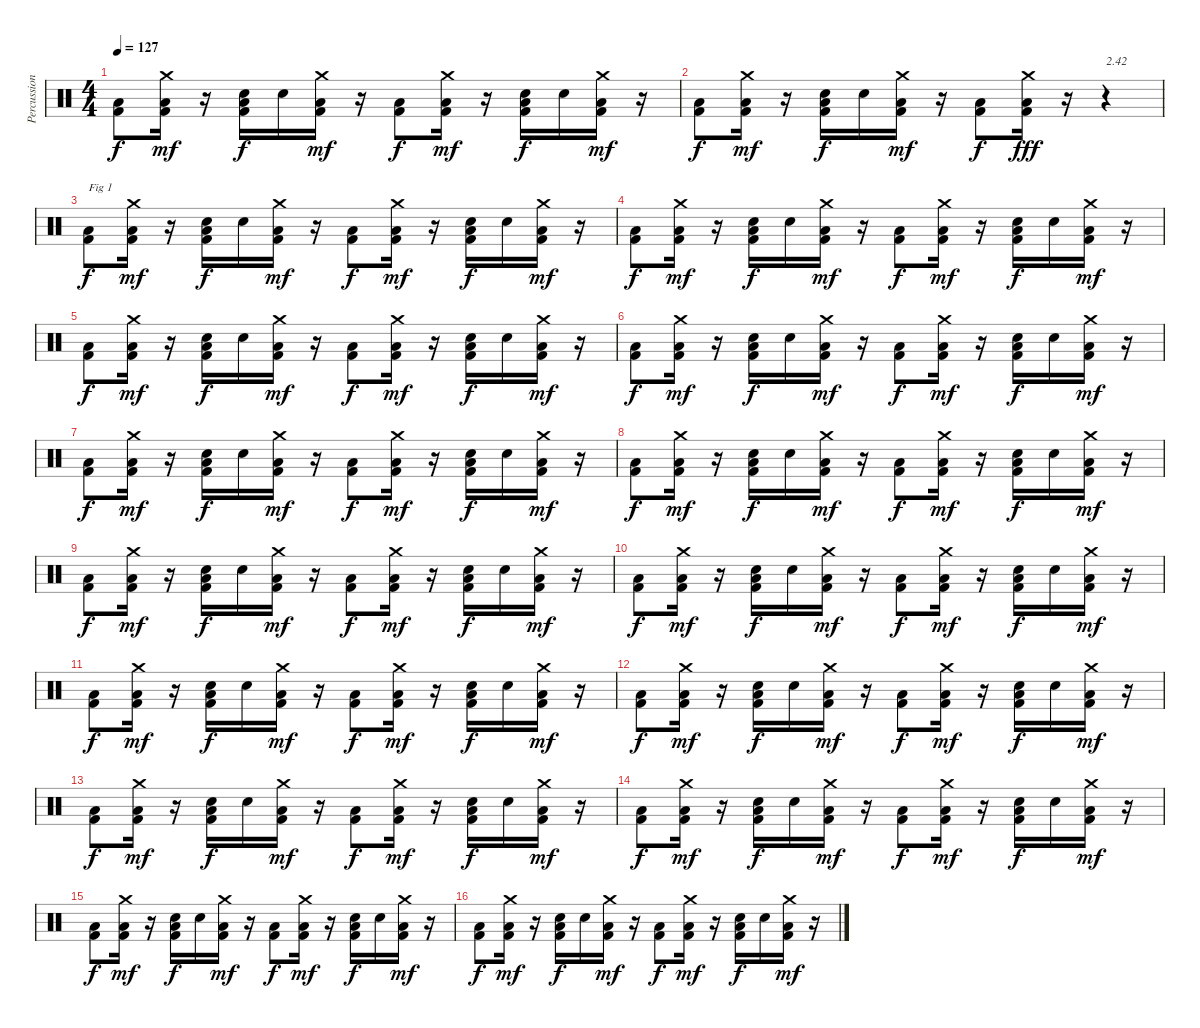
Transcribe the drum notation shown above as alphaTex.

\track ("Percussions" "Percussion") {instrument percussion}
\staff {score}
\articulation defaults
\ts (4 4)
\tempo 127
\clef neutral
\ks c
("Low Floor Tom (hit)" "Kick (hit) 2").8{dy f} ("Low Floor Tom (hit)" "Kick (hit) 2" "Crash medium (hit)").16{dy mf} r.16 ("Low Floor Tom (hit)" "Kick (hit) 2" "Electric Snare (hit)").16{dy f} "Electric Snare (hit)".16 ("Low Floor Tom (hit)" "Kick (hit) 2" "Crash medium (hit)").16{dy mf} r.16 ("Low Floor Tom (hit)" "Kick (hit) 2").8{dy f} ("Low Floor Tom (hit)" "Kick (hit) 2" "Crash medium (hit)").16{dy mf} r.16 ("Low Floor Tom (hit)" "Kick (hit) 2" "Electric Snare (hit)").16{dy f} "Electric Snare (hit)".16 ("Low Floor Tom (hit)" "Kick (hit) 2" "Crash medium (hit)").16{dy mf} r.16 |
("Low Floor Tom (hit)" "Kick (hit) 2").8{dy f} ("Low Floor Tom (hit)" "Kick (hit) 2" "Crash medium (hit)").16{dy mf} r.16 ("Low Floor Tom (hit)" "Kick (hit) 2" "Electric Snare (hit)").16{dy f} "Electric Snare (hit)".16 ("Low Floor Tom (hit)" "Kick (hit) 2" "Crash medium (hit)").16{dy mf} r.16 ("Low Floor Tom (hit)" "Kick (hit) 2").8{dy f} ("Low Floor Tom (hit)" "Kick (hit) 2" "Crash medium (hit)").16{dy fff} r.16 r.4{txt "2.42"} |
("Low Floor Tom (hit)" "Kick (hit) 2").8{txt "Fig 1" dy f} ("Low Floor Tom (hit)" "Kick (hit) 2" "Crash medium (hit)").16{dy mf} r.16 ("Low Floor Tom (hit)" "Kick (hit) 2" "Electric Snare (hit)").16{dy f} "Electric Snare (hit)".16 ("Low Floor Tom (hit)" "Kick (hit) 2" "Crash medium (hit)").16{dy mf} r.16 ("Low Floor Tom (hit)" "Kick (hit) 2").8{dy f} ("Low Floor Tom (hit)" "Kick (hit) 2" "Crash medium (hit)").16{dy mf} r.16 ("Low Floor Tom (hit)" "Kick (hit) 2" "Electric Snare (hit)").16{dy f} "Electric Snare (hit)".16 ("Low Floor Tom (hit)" "Kick (hit) 2" "Crash medium (hit)").16{dy mf} r.16 |
("Low Floor Tom (hit)" "Kick (hit) 2").8{dy f} ("Low Floor Tom (hit)" "Kick (hit) 2" "Crash medium (hit)").16{dy mf} r.16 ("Low Floor Tom (hit)" "Kick (hit) 2" "Electric Snare (hit)").16{dy f} "Electric Snare (hit)".16 ("Low Floor Tom (hit)" "Kick (hit) 2" "Crash medium (hit)").16{dy mf} r.16 ("Low Floor Tom (hit)" "Kick (hit) 2").8{dy f} ("Low Floor Tom (hit)" "Kick (hit) 2" "Crash medium (hit)").16{dy mf} r.16 ("Low Floor Tom (hit)" "Kick (hit) 2" "Electric Snare (hit)").16{dy f} "Electric Snare (hit)".16 ("Low Floor Tom (hit)" "Kick (hit) 2" "Crash medium (hit)").16{dy mf} r.16 |
("Low Floor Tom (hit)" "Kick (hit) 2").8{dy f} ("Low Floor Tom (hit)" "Kick (hit) 2" "Crash medium (hit)").16{dy mf} r.16 ("Low Floor Tom (hit)" "Kick (hit) 2" "Electric Snare (hit)").16{dy f} "Electric Snare (hit)".16 ("Low Floor Tom (hit)" "Kick (hit) 2" "Crash medium (hit)").16{dy mf} r.16 ("Low Floor Tom (hit)" "Kick (hit) 2").8{dy f} ("Low Floor Tom (hit)" "Kick (hit) 2" "Crash medium (hit)").16{dy mf} r.16 ("Low Floor Tom (hit)" "Kick (hit) 2" "Electric Snare (hit)").16{dy f} "Electric Snare (hit)".16 ("Low Floor Tom (hit)" "Kick (hit) 2" "Crash medium (hit)").16{dy mf} r.16 |
("Low Floor Tom (hit)" "Kick (hit) 2").8{dy f} ("Low Floor Tom (hit)" "Kick (hit) 2" "Crash medium (hit)").16{dy mf} r.16 ("Low Floor Tom (hit)" "Kick (hit) 2" "Electric Snare (hit)").16{dy f} "Electric Snare (hit)".16 ("Low Floor Tom (hit)" "Kick (hit) 2" "Crash medium (hit)").16{dy mf} r.16 ("Low Floor Tom (hit)" "Kick (hit) 2").8{dy f} ("Low Floor Tom (hit)" "Kick (hit) 2" "Crash medium (hit)").16{dy mf} r.16 ("Low Floor Tom (hit)" "Kick (hit) 2" "Electric Snare (hit)").16{dy f} "Electric Snare (hit)".16 ("Low Floor Tom (hit)" "Kick (hit) 2" "Crash medium (hit)").16{dy mf} r.16 |
("Low Floor Tom (hit)" "Kick (hit) 2").8{dy f} ("Low Floor Tom (hit)" "Kick (hit) 2" "Crash medium (hit)").16{dy mf} r.16 ("Low Floor Tom (hit)" "Kick (hit) 2" "Electric Snare (hit)").16{dy f} "Electric Snare (hit)".16 ("Low Floor Tom (hit)" "Kick (hit) 2" "Crash medium (hit)").16{dy mf} r.16 ("Low Floor Tom (hit)" "Kick (hit) 2").8{dy f} ("Low Floor Tom (hit)" "Kick (hit) 2" "Crash medium (hit)").16{dy mf} r.16 ("Low Floor Tom (hit)" "Kick (hit) 2" "Electric Snare (hit)").16{dy f} "Electric Snare (hit)".16 ("Low Floor Tom (hit)" "Kick (hit) 2" "Crash medium (hit)").16{dy mf} r.16 |
("Low Floor Tom (hit)" "Kick (hit) 2").8{dy f} ("Low Floor Tom (hit)" "Kick (hit) 2" "Crash medium (hit)").16{dy mf} r.16 ("Low Floor Tom (hit)" "Kick (hit) 2" "Electric Snare (hit)").16{dy f} "Electric Snare (hit)".16 ("Low Floor Tom (hit)" "Kick (hit) 2" "Crash medium (hit)").16{dy mf} r.16 ("Low Floor Tom (hit)" "Kick (hit) 2").8{dy f} ("Low Floor Tom (hit)" "Kick (hit) 2" "Crash medium (hit)").16{dy mf} r.16 ("Low Floor Tom (hit)" "Kick (hit) 2" "Electric Snare (hit)").16{dy f} "Electric Snare (hit)".16 ("Low Floor Tom (hit)" "Kick (hit) 2" "Crash medium (hit)").16{dy mf} r.16 |
("Low Floor Tom (hit)" "Kick (hit) 2").8{dy f} ("Low Floor Tom (hit)" "Kick (hit) 2" "Crash medium (hit)").16{dy mf} r.16 ("Low Floor Tom (hit)" "Kick (hit) 2" "Electric Snare (hit)").16{dy f} "Electric Snare (hit)".16 ("Low Floor Tom (hit)" "Kick (hit) 2" "Crash medium (hit)").16{dy mf} r.16 ("Low Floor Tom (hit)" "Kick (hit) 2").8{dy f} ("Low Floor Tom (hit)" "Kick (hit) 2" "Crash medium (hit)").16{dy mf} r.16 ("Low Floor Tom (hit)" "Kick (hit) 2" "Electric Snare (hit)").16{dy f} "Electric Snare (hit)".16 ("Low Floor Tom (hit)" "Kick (hit) 2" "Crash medium (hit)").16{dy mf} r.16 |
("Low Floor Tom (hit)" "Kick (hit) 2").8{dy f} ("Low Floor Tom (hit)" "Kick (hit) 2" "Crash medium (hit)").16{dy mf} r.16 ("Low Floor Tom (hit)" "Kick (hit) 2" "Electric Snare (hit)").16{dy f} "Electric Snare (hit)".16 ("Low Floor Tom (hit)" "Kick (hit) 2" "Crash medium (hit)").16{dy mf} r.16 ("Low Floor Tom (hit)" "Kick (hit) 2").8{dy f} ("Low Floor Tom (hit)" "Kick (hit) 2" "Crash medium (hit)").16{dy mf} r.16 ("Low Floor Tom (hit)" "Kick (hit) 2" "Electric Snare (hit)").16{dy f} "Electric Snare (hit)".16 ("Low Floor Tom (hit)" "Kick (hit) 2" "Crash medium (hit)").16{dy mf} r.16 |
("Low Floor Tom (hit)" "Kick (hit) 2").8{dy f} ("Low Floor Tom (hit)" "Kick (hit) 2" "Crash medium (hit)").16{dy mf} r.16 ("Low Floor Tom (hit)" "Kick (hit) 2" "Electric Snare (hit)").16{dy f} "Electric Snare (hit)".16 ("Low Floor Tom (hit)" "Kick (hit) 2" "Crash medium (hit)").16{dy mf} r.16 ("Low Floor Tom (hit)" "Kick (hit) 2").8{dy f} ("Low Floor Tom (hit)" "Kick (hit) 2" "Crash medium (hit)").16{dy mf} r.16 ("Low Floor Tom (hit)" "Kick (hit) 2" "Electric Snare (hit)").16{dy f} "Electric Snare (hit)".16 ("Low Floor Tom (hit)" "Kick (hit) 2" "Crash medium (hit)").16{dy mf} r.16 |
("Low Floor Tom (hit)" "Kick (hit) 2").8{dy f} ("Low Floor Tom (hit)" "Kick (hit) 2" "Crash medium (hit)").16{dy mf} r.16 ("Low Floor Tom (hit)" "Kick (hit) 2" "Electric Snare (hit)").16{dy f} "Electric Snare (hit)".16 ("Low Floor Tom (hit)" "Kick (hit) 2" "Crash medium (hit)").16{dy mf} r.16 ("Low Floor Tom (hit)" "Kick (hit) 2").8{dy f} ("Low Floor Tom (hit)" "Kick (hit) 2" "Crash medium (hit)").16{dy mf} r.16 ("Low Floor Tom (hit)" "Kick (hit) 2" "Electric Snare (hit)").16{dy f} "Electric Snare (hit)".16 ("Low Floor Tom (hit)" "Kick (hit) 2" "Crash medium (hit)").16{dy mf} r.16 |
("Low Floor Tom (hit)" "Kick (hit) 2").8{dy f} ("Low Floor Tom (hit)" "Kick (hit) 2" "Crash medium (hit)").16{dy mf} r.16 ("Low Floor Tom (hit)" "Kick (hit) 2" "Electric Snare (hit)").16{dy f} "Electric Snare (hit)".16 ("Low Floor Tom (hit)" "Kick (hit) 2" "Crash medium (hit)").16{dy mf} r.16 ("Low Floor Tom (hit)" "Kick (hit) 2").8{dy f} ("Low Floor Tom (hit)" "Kick (hit) 2" "Crash medium (hit)").16{dy mf} r.16 ("Low Floor Tom (hit)" "Kick (hit) 2" "Electric Snare (hit)").16{dy f} "Electric Snare (hit)".16 ("Low Floor Tom (hit)" "Kick (hit) 2" "Crash medium (hit)").16{dy mf} r.16 |
("Low Floor Tom (hit)" "Kick (hit) 2").8{dy f} ("Low Floor Tom (hit)" "Kick (hit) 2" "Crash medium (hit)").16{dy mf} r.16 ("Low Floor Tom (hit)" "Kick (hit) 2" "Electric Snare (hit)").16{dy f} "Electric Snare (hit)".16 ("Low Floor Tom (hit)" "Kick (hit) 2" "Crash medium (hit)").16{dy mf} r.16 ("Low Floor Tom (hit)" "Kick (hit) 2").8{dy f} ("Low Floor Tom (hit)" "Kick (hit) 2" "Crash medium (hit)").16{dy mf} r.16 ("Low Floor Tom (hit)" "Kick (hit) 2" "Electric Snare (hit)").16{dy f} "Electric Snare (hit)".16 ("Low Floor Tom (hit)" "Kick (hit) 2" "Crash medium (hit)").16{dy mf} r.16 |
("Low Floor Tom (hit)" "Kick (hit) 2").8{dy f} ("Low Floor Tom (hit)" "Kick (hit) 2" "Crash medium (hit)").16{dy mf} r.16 ("Low Floor Tom (hit)" "Kick (hit) 2" "Electric Snare (hit)").16{dy f} "Electric Snare (hit)".16 ("Low Floor Tom (hit)" "Kick (hit) 2" "Crash medium (hit)").16{dy mf} r.16 ("Low Floor Tom (hit)" "Kick (hit) 2").8{dy f} ("Low Floor Tom (hit)" "Kick (hit) 2" "Crash medium (hit)").16{dy mf} r.16 ("Low Floor Tom (hit)" "Kick (hit) 2" "Electric Snare (hit)").16{dy f} "Electric Snare (hit)".16 ("Low Floor Tom (hit)" "Kick (hit) 2" "Crash medium (hit)").16{dy mf} r.16 |
("Low Floor Tom (hit)" "Kick (hit) 2").8{dy f} ("Low Floor Tom (hit)" "Kick (hit) 2" "Crash medium (hit)").16{dy mf} r.16 ("Low Floor Tom (hit)" "Kick (hit) 2" "Electric Snare (hit)").16{dy f} "Electric Snare (hit)".16 ("Low Floor Tom (hit)" "Kick (hit) 2" "Crash medium (hit)").16{dy mf} r.16 ("Low Floor Tom (hit)" "Kick (hit) 2").8{dy f} ("Low Floor Tom (hit)" "Kick (hit) 2" "Crash medium (hit)").16{dy mf} r.16 ("Low Floor Tom (hit)" "Kick (hit) 2" "Electric Snare (hit)").16{dy f} "Electric Snare (hit)".16 ("Low Floor Tom (hit)" "Kick (hit) 2" "Crash medium (hit)").16{dy mf} r.16
